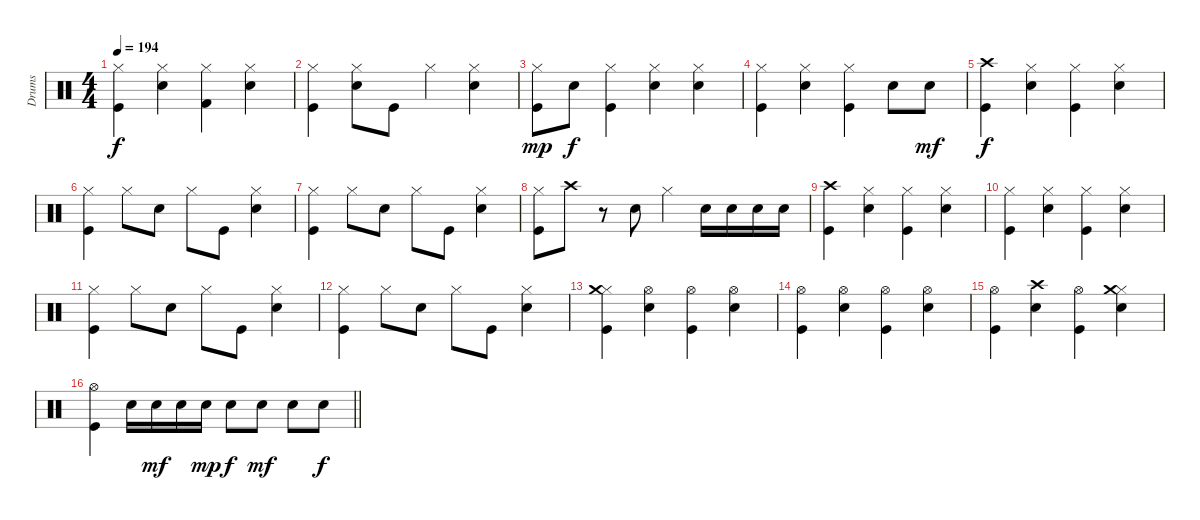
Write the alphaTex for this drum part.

\track ("Drums" "Drums") {instrument percussion}
\staff {score}
\articulation defaults
\ts (4 4)
\tempo 194
\clef neutral
\ks c
("Kick (hit)" "Hi-Hat (closed)").4{dy f} ("Snare (hit) 2" "Hi-Hat (closed)").4 ("Kick (hit) 2" "Hi-Hat (closed)").4 ("Snare (hit) 2" "Hi-Hat (closed)").4 |
("Kick (hit)" "Hi-Hat (closed)").4 ("Snare (hit) 2" "Hi-Hat (closed)").8 "Kick (hit)".8 "Hi-Hat (closed)".4 ("Snare (hit) 2" "Hi-Hat (closed)").4 |
("Kick (hit)" "Hi-Hat (closed)").8{dy mp} "Snare (hit) 2".8{dy f} ("Kick (hit)" "Hi-Hat (closed)").4 ("Snare (hit) 2" "Hi-Hat (closed)").4 ("Snare (hit) 2" "Hi-Hat (closed)").4 |
("Kick (hit)" "Hi-Hat (closed)").4 ("Snare (hit) 2" "Hi-Hat (closed)").4 ("Kick (hit)" "Hi-Hat (closed)").4 "Snare (hit) 2".8 "Snare (hit) 2".8{dy mf} |
("Kick (hit)" "Crash high (hit)").4{dy f} ("Snare (hit) 2" "Hi-Hat (closed)").4 ("Kick (hit)" "Hi-Hat (closed)").4 ("Snare (hit) 2" "Hi-Hat (closed)").4 |
("Kick (hit)" "Hi-Hat (closed)").4 "Hi-Hat (closed)".8 "Snare (hit) 2".8 "Hi-Hat (closed)".8 "Kick (hit)".8 ("Snare (hit) 2" "Hi-Hat (closed)").4 |
("Kick (hit)" "Hi-Hat (closed)").4 "Hi-Hat (closed)".8 "Snare (hit) 2".8 "Hi-Hat (closed)".8 "Kick (hit)".8 ("Snare (hit) 2" "Hi-Hat (closed)").4 |
("Kick (hit)" "Hi-Hat (closed)").8 "Crash high (hit)".8 r.8 "Snare (hit) 2".8 "Hi-Hat (closed)".4 "Snare (hit) 2".16 "Snare (hit) 2".16 "Snare (hit) 2".16 "Snare (hit) 2".16 |
("Kick (hit)" "Crash high (hit)").4 ("Snare (hit) 2" "Hi-Hat (closed)").4 ("Kick (hit)" "Hi-Hat (closed)").4 ("Snare (hit) 2" "Hi-Hat (closed)").4 |
("Kick (hit)" "Hi-Hat (closed)").4 ("Snare (hit) 2" "Hi-Hat (closed)").4 ("Kick (hit)" "Hi-Hat (closed)").4 ("Snare (hit) 2" "Hi-Hat (closed)").4 |
("Kick (hit)" "Hi-Hat (closed)").4 "Hi-Hat (closed)".8 "Snare (hit) 2".8 "Hi-Hat (closed)".8 "Kick (hit)".8 ("Snare (hit) 2" "Hi-Hat (closed)").4 |
("Kick (hit)" "Hi-Hat (closed)").4 "Hi-Hat (closed)".8 "Snare (hit) 2".8 "Hi-Hat (closed)".8 "Kick (hit)".8 ("Snare (hit) 2" "Hi-Hat (closed)").4 |
("Kick (hit)" "Hi-Hat (closed)" "Crash medium (hit)").4 ("Snare (hit) 2" "Hi-Hat (open)").4 ("Kick (hit)" "Hi-Hat (open)").4 ("Snare (hit) 2" "Hi-Hat (open)").4 |
("Kick (hit)" "Hi-Hat (open)").4 ("Snare (hit) 2" "Hi-Hat (open)").4 ("Kick (hit)" "Hi-Hat (open)").4 ("Snare (hit) 2" "Hi-Hat (open)").4 |
("Kick (hit)" "Hi-Hat (open)").4 ("Snare (hit) 2" "Crash high (hit)").4 ("Kick (hit)" "Hi-Hat (open)").4 ("Snare (hit) 2" "Hi-Hat (closed)" "Crash medium (hit)").4 |
\barLineRight lightlight
("Kick (hit)" "Hi-Hat (open)").4 "Snare (hit) 2".16 "Snare (hit) 2".16{dy mf} "Snare (hit) 2".16 "Snare (hit) 2".16{dy mp} "Snare (hit) 2".8{dy f} "Snare (hit) 2".8{dy mf} "Snare (hit) 2".8 "Snare (hit) 2".8{dy f}
